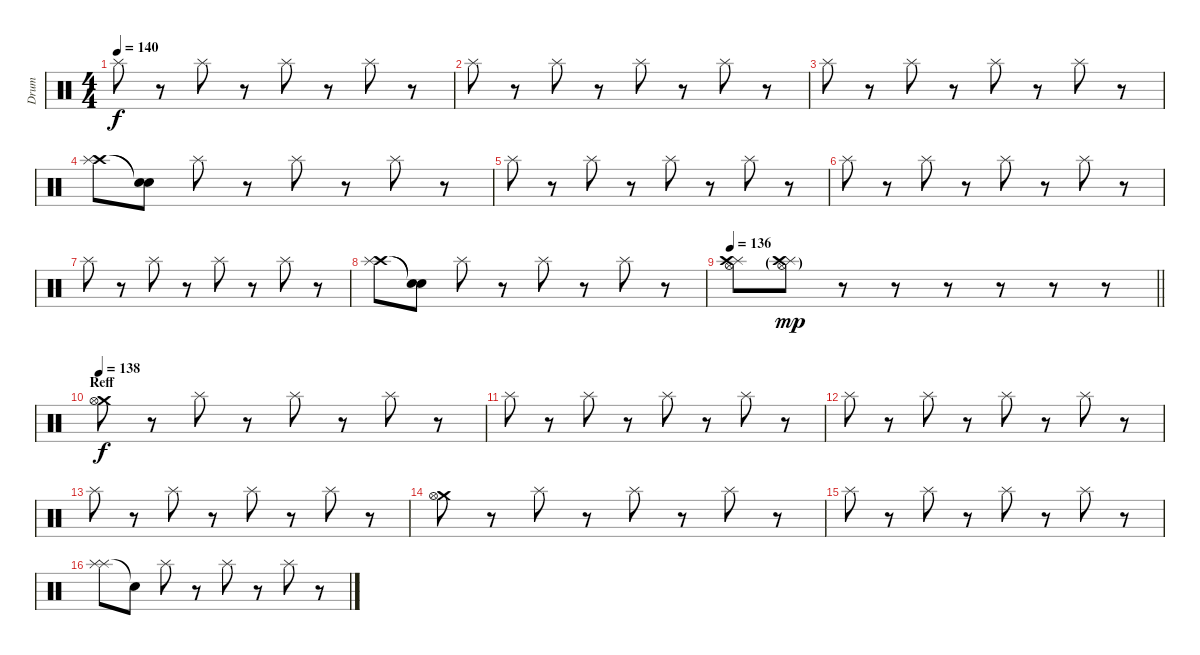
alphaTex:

\track ("Drum" "Drum") {instrument percussion}
\staff {score}
\articulation defaults
\ts (4 4)
\tempo 140
\clef neutral
\ks c "Splash (hit)".8{dy f}
r.8 "Splash (hit)".8 r.8 "Splash (hit)".8 r.8 "Splash (hit)".8 r.8 |
"Splash (hit)".8 r.8 "Splash (hit)".8 r.8 "Splash (hit)".8 r.8 "Splash (hit)".8 r.8 |
"Splash (hit)".8 r.8 "Splash (hit)".8 r.8 "Splash (hit)".8 r.8 "Splash (hit)".8 r.8 |
("Crash high (hit)" "Splash (hit)").8 ("Snare (hit)"{t} "Snare (hit)"{t}).8 "Splash (hit)".8 r.8 "Splash (hit)".8 r.8 "Splash (hit)".8 r.8 |
"Splash (hit)".8 r.8 "Splash (hit)".8 r.8 "Splash (hit)".8 r.8 "Splash (hit)".8 r.8 |
"Splash (hit)".8 r.8 "Splash (hit)".8 r.8 "Splash (hit)".8 r.8 "Splash (hit)".8 r.8 |
"Splash (hit)".8 r.8 "Splash (hit)".8 r.8 "Splash (hit)".8 r.8 "Splash (hit)".8 r.8 |
("Crash high (hit)" "Splash (hit)").8 ("Snare (hit)"{t} "Snare (hit)"{t}).8 "Splash (hit)".8 r.8 "Splash (hit)".8 r.8 "Splash (hit)".8 r.8 |
\tempo 136
\barLineRight lightlight
("Splash (hit)" "Crash high (hit)" "Hi-Hat (open)").8 ("Splash (hit)"{g} "Crash high (hit)"{g} "Hi-Hat (open)"{g}).8{dy mp} r.8 r.8 r.8 r.8 r.8 r.8 |
\section ("" "Reff")
\tempo 138
("Crash medium (hit)" "Hi-Hat (open)").8{dy f} r.8 "Splash (hit)".8 r.8 "Splash (hit)".8 r.8 "Splash (hit)".8 r.8 |
"Splash (hit)".8 r.8 "Splash (hit)".8 r.8 "Splash (hit)".8 r.8 "Splash (hit)".8 r.8 |
"Splash (hit)".8 r.8 "Splash (hit)".8 r.8 "Splash (hit)".8 r.8 "Splash (hit)".8 r.8 |
"Splash (hit)".8 r.8 "Splash (hit)".8 r.8 "Splash (hit)".8 r.8 "Splash (hit)".8 r.8 |
("Crash medium (hit)" "Hi-Hat (open)").8 r.8 "Splash (hit)".8 r.8 "Splash (hit)".8 r.8 "Splash (hit)".8 r.8 |
"Splash (hit)".8 r.8 "Splash (hit)".8 r.8 "Splash (hit)".8 r.8 "Splash (hit)".8 r.8 |
("Splash (hit)" "Splash (hit)").8 "Snare (hit)"{t}.8 "Splash (hit)".8 r.8 "Splash (hit)".8 r.8 "Splash (hit)".8 r.8
